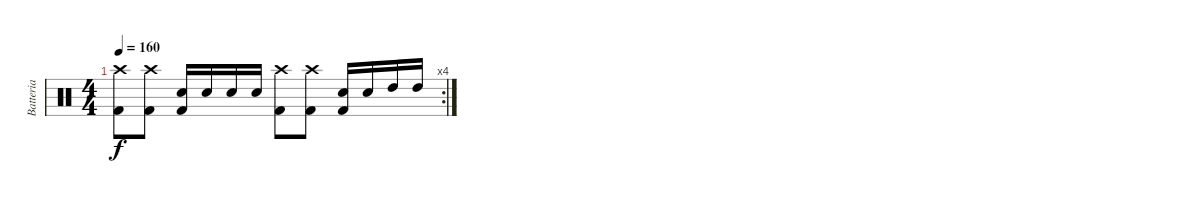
\track ("Batteria" "Batteria") {instrument percussion}
\staff {score}
\articulation defaults
\rc 4
\ts (4 4)
\tempo 160
\clef neutral
\ks c
("Crash high (hit)" "Kick (hit) 2").8{dy f} ("Crash high (hit)" "Kick (hit) 2").8 ("Electric Snare (hit)" "Kick (hit) 2").16 "Electric Snare (hit)".16 "Electric Snare (hit)".16 "Electric Snare (hit)".16 ("Crash high (hit)" "Kick (hit) 2").8 ("Crash high (hit)" "Kick (hit) 2").8 ("Electric Snare (hit)" "Kick (hit) 2").16 "Electric Snare (hit)".16 "High Tom (hit)".16 "High Tom (hit)".16
